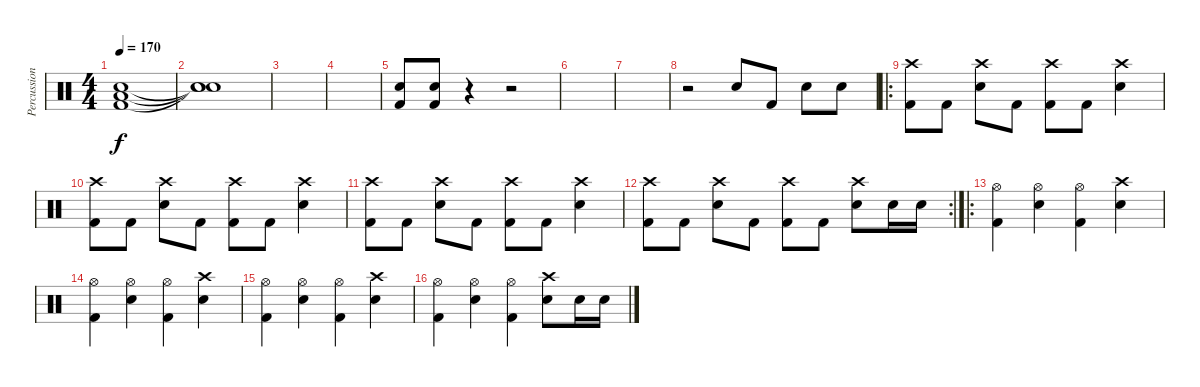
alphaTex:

\track ("Percussion" "Percussion") {instrument percussion}
\staff {score}
\articulation defaults
\ts (4 4)
\tempo 170
\clef neutral
\ks c
("Low Floor Tom (hit)" "Electric Snare (hit)" "Kick (hit) 2").1{dy f} |
("Snare (hit)"{t} "Snare (hit)"{t} "Snare (hit)"{t}).1 |
|
|
("Electric Snare (hit)" "Kick (hit) 2").8 ("Electric Snare (hit)" "Kick (hit) 2").8 r.4 r.2 |
|
|
r.2 "Electric Snare (hit)".8 "Kick (hit) 2".8 "Electric Snare (hit)".8 "Electric Snare (hit)".8 |
\ro
("Crash high (hit)" "Kick (hit) 2").8 "Kick (hit) 2".8 ("Crash high (hit)" "Electric Snare (hit)").8 "Kick (hit) 2".8 ("Crash high (hit)" "Kick (hit) 2").8 "Kick (hit) 2".8 ("Crash high (hit)" "Electric Snare (hit)").4 |
("Crash high (hit)" "Kick (hit) 2").8 "Kick (hit) 2".8 ("Crash high (hit)" "Electric Snare (hit)").8 "Kick (hit) 2".8 ("Crash high (hit)" "Kick (hit) 2").8 "Kick (hit) 2".8 ("Crash high (hit)" "Electric Snare (hit)").4 |
("Crash high (hit)" "Kick (hit) 2").8 "Kick (hit) 2".8 ("Crash high (hit)" "Electric Snare (hit)").8 "Kick (hit) 2".8 ("Crash high (hit)" "Kick (hit) 2").8 "Kick (hit) 2".8 ("Crash high (hit)" "Electric Snare (hit)").4 |
\rc 2
("Crash high (hit)" "Kick (hit) 2").8 "Kick (hit) 2".8 ("Crash high (hit)" "Electric Snare (hit)").8 "Kick (hit) 2".8 ("Crash high (hit)" "Kick (hit) 2").8 "Kick (hit) 2".8 ("Crash high (hit)" "Electric Snare (hit)").8 "Electric Snare (hit)".16 "Electric Snare (hit)".16 |
\ro
("Hi-Hat (open)" "Kick (hit) 2").4 ("Hi-Hat (open)" "Electric Snare (hit)").4 ("Hi-Hat (open)" "Kick (hit) 2").4 ("Crash high (hit)" "Electric Snare (hit)").4 |
("Hi-Hat (open)" "Kick (hit) 2").4 ("Hi-Hat (open)" "Electric Snare (hit)").4 ("Hi-Hat (open)" "Kick (hit) 2").4 ("Crash high (hit)" "Electric Snare (hit)").4 |
("Hi-Hat (open)" "Kick (hit) 2").4 ("Hi-Hat (open)" "Electric Snare (hit)").4 ("Hi-Hat (open)" "Kick (hit) 2").4 ("Crash high (hit)" "Electric Snare (hit)").4 |
("Hi-Hat (open)" "Kick (hit) 2").4 ("Hi-Hat (open)" "Electric Snare (hit)").4 ("Hi-Hat (open)" "Kick (hit) 2").4 ("Crash high (hit)" "Electric Snare (hit)").8 "Electric Snare (hit)".16 "Electric Snare (hit)".16
